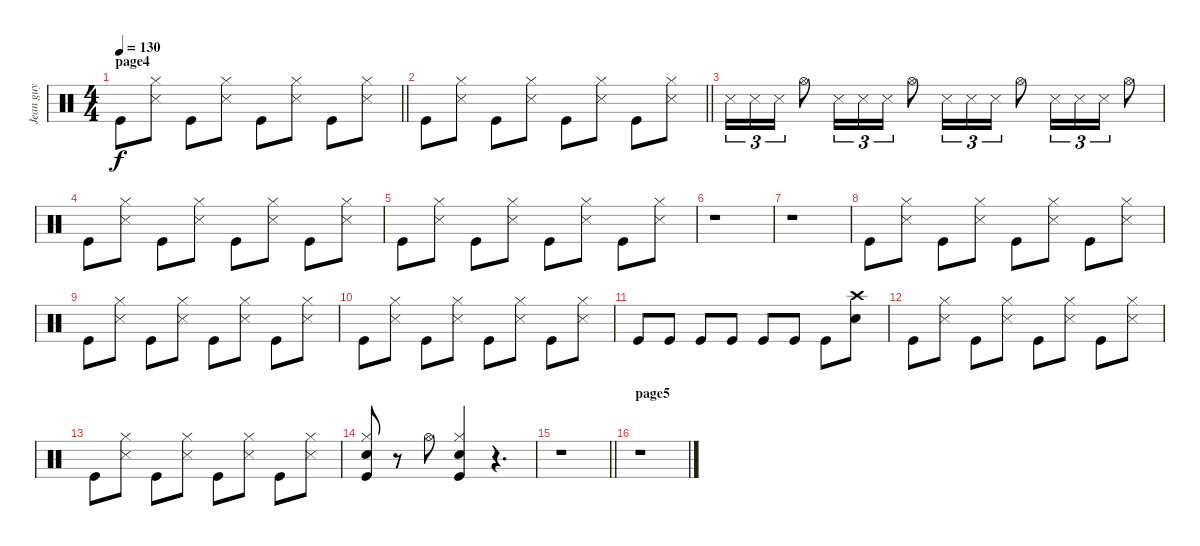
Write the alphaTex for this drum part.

\track ("Jean guy" "Jean guy") {instrument percussion}
\staff {score}
\articulation defaults
\ts (4 4)
\section ("" "page4")
\tempo 130
\clef neutral
\barLineRight lightlight
\ks c "Kick (hit)".8{dy f}
("Hi-Hat (closed)" "Snare (side stick) 3").8 "Kick (hit)".8 ("Hi-Hat (closed)" "Snare (side stick) 3").8 "Kick (hit)".8 ("Hi-Hat (closed)" "Snare (side stick) 3").8 "Kick (hit)".8 ("Hi-Hat (closed)" "Snare (side stick) 3").8 |
\barLineRight lightlight "Kick (hit)".8
("Hi-Hat (closed)" "Snare (side stick) 3").8 "Kick (hit)".8 ("Hi-Hat (closed)" "Snare (side stick) 3").8 "Kick (hit)".8 ("Hi-Hat (closed)" "Snare (side stick) 3").8 "Kick (hit)".8 ("Hi-Hat (closed)" "Snare (side stick) 3").8 |
"Snare (side stick) 3".16{tu (3 2)} "Snare (side stick) 3".16{tu (3 2)} "Snare (side stick) 3".16{tu (3 2)} "Hi-Hat (open)".8 "Snare (side stick) 3".16{tu (3 2)} "Snare (side stick) 3".16{tu (3 2)} "Snare (side stick) 3".16{tu (3 2)} "Hi-Hat (open)".8 "Snare (side stick) 3".16{tu (3 2)} "Snare (side stick) 3".16{tu (3 2)} "Snare (side stick) 3".16{tu (3 2)} "Hi-Hat (open)".8 "Snare (side stick) 3".16{tu (3 2)} "Snare (side stick) 3".16{tu (3 2)} "Snare (side stick) 3".16{tu (3 2)} "Hi-Hat (open)".8 |
"Kick (hit)".8 ("Hi-Hat (closed)" "Snare (side stick) 3").8 "Kick (hit)".8 ("Hi-Hat (closed)" "Snare (side stick) 3").8 "Kick (hit)".8 ("Hi-Hat (closed)" "Snare (side stick) 3").8 "Kick (hit)".8 ("Hi-Hat (closed)" "Snare (side stick) 3").8 |
"Kick (hit)".8 ("Hi-Hat (closed)" "Snare (side stick) 3").8 "Kick (hit)".8 ("Hi-Hat (closed)" "Snare (side stick) 3").8 "Kick (hit)".8 ("Hi-Hat (closed)" "Snare (side stick) 3").8 "Kick (hit)".8 ("Hi-Hat (closed)" "Snare (side stick) 3").8 |
r.1 |
r.1 |
"Kick (hit)".8 ("Hi-Hat (closed)" "Snare (side stick) 3").8 "Kick (hit)".8 ("Hi-Hat (closed)" "Snare (side stick) 3").8 "Kick (hit)".8 ("Hi-Hat (closed)" "Snare (side stick) 3").8 "Kick (hit)".8 ("Hi-Hat (closed)" "Snare (side stick) 3").8 |
"Kick (hit)".8 ("Hi-Hat (closed)" "Snare (side stick) 3").8 "Kick (hit)".8 ("Hi-Hat (closed)" "Snare (side stick) 3").8 "Kick (hit)".8 ("Hi-Hat (closed)" "Snare (side stick) 3").8 "Kick (hit)".8 ("Hi-Hat (closed)" "Snare (side stick) 3").8 |
"Kick (hit)".8 ("Hi-Hat (closed)" "Snare (side stick) 3").8 "Kick (hit)".8 ("Hi-Hat (closed)" "Snare (side stick) 3").8 "Kick (hit)".8 ("Hi-Hat (closed)" "Snare (side stick) 3").8 "Kick (hit)".8 ("Hi-Hat (closed)" "Snare (side stick) 3").8 |
"Kick (hit)".8 "Kick (hit)".8 "Kick (hit)".8 "Kick (hit)".8 "Kick (hit)".8 "Kick (hit)".8 "Kick (hit)".8 ("Crash high (hit)" "Electric Snare (hit)").8 |
"Kick (hit)".8 ("Hi-Hat (closed)" "Snare (side stick) 3").8 "Kick (hit)".8 ("Hi-Hat (closed)" "Snare (side stick) 3").8 "Kick (hit)".8 ("Hi-Hat (closed)" "Snare (side stick) 3").8 "Kick (hit)".8 ("Hi-Hat (closed)" "Snare (side stick) 3").8 |
"Kick (hit)".8 ("Hi-Hat (closed)" "Snare (side stick) 3").8 "Kick (hit)".8 ("Hi-Hat (closed)" "Snare (side stick) 3").8 "Kick (hit)".8 ("Hi-Hat (closed)" "Snare (side stick) 3").8 "Kick (hit)".8 ("Hi-Hat (closed)" "Snare (side stick) 3").8 |
("Hi-Hat (closed)" "Electric Snare (hit)" "Kick (hit)").8 r.8 "Hi-Hat (open)".8 ("Hi-Hat (closed)" "Electric Snare (hit)" "Kick (hit)").4 r.4{d} |
\barLineRight lightlight
r.1 |
\section ("" "page5")
r.1
